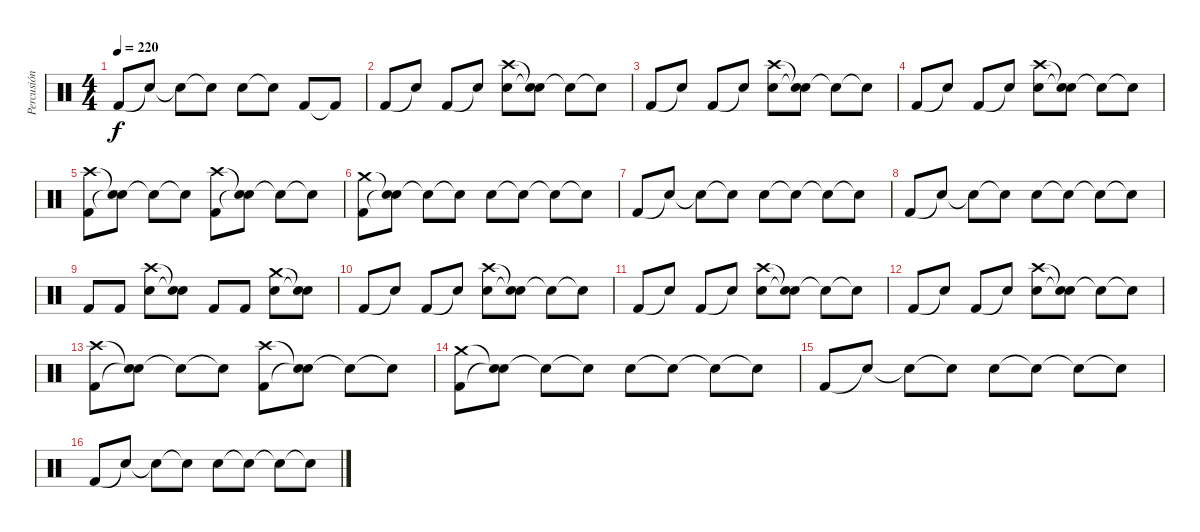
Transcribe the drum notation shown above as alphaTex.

\track ("Percusión" "Percusión") {instrument percussion}
\staff {score}
\articulation defaults
\ts (4 4)
\tempo 220
\clef neutral
\ks c "Kick (hit) 2".8{dy f} "Snare (hit)"{t}.8 "Snare (hit)"{t}.8 "Snare (hit)"{t}.8 "Snare (hit) 2".8 "Snare (hit)"{t}.8 "Kick (hit) 2".8 "Kick (hit) 2"{t}.8
|
"Kick (hit) 2".8 "Snare (hit)"{t}.8 "Kick (hit) 2".8 "Snare (hit)"{t}.8 ("Snare (hit) 2" "Crash high (hit)").8 ("Snare (hit)"{t} "Snare (hit)"{t}).8 "Snare (hit)"{t}.8 "Snare (hit)"{t}.8 |
"Kick (hit) 2".8 "Snare (hit)"{t}.8 "Kick (hit) 2".8 "Snare (hit)"{t}.8 ("Snare (hit) 2" "Crash high (hit)").8 ("Snare (hit)"{t} "Snare (hit)"{t}).8 "Snare (hit)"{t}.8 "Snare (hit)"{t}.8 |
"Kick (hit) 2".8 "Snare (hit)"{t}.8 "Kick (hit) 2".8 "Snare (hit)"{t}.8 ("Snare (hit) 2" "Crash high (hit)").8 ("Snare (hit)"{t} "Snare (hit)"{t}).8 "Snare (hit)"{t}.8 "Snare (hit)"{t}.8 |
("Kick (hit) 2" "Crash high (hit)").8 ("Snare (hit)"{t} "Snare (hit)"{t}).8 "Snare (hit)"{t}.8 "Snare (hit)"{t}.8 ("Kick (hit) 2" "Crash high (hit)").8 ("Snare (hit)"{t} "Snare (hit)"{t}).8 "Snare (hit)"{t}.8 "Snare (hit)"{t}.8 |
("Kick (hit) 2" "Crash medium (hit)").8 ("Snare (hit)"{t} "Snare (hit)"{t}).8 "Snare (hit)"{t}.8 "Snare (hit)"{t}.8 "Snare (hit) 2".8 "Snare (hit)"{t}.8 "Snare (hit)"{t}.8 "Snare (hit)"{t}.8 |
"Kick (hit) 2".8 "Snare (hit)"{t}.8 "Snare (hit)"{t}.8 "Snare (hit)"{t}.8 "Snare (hit) 2".8 "Snare (hit)"{t}.8 "Snare (hit)"{t}.8 "Snare (hit)"{t}.8 |
"Kick (hit) 2".8 "Snare (hit)"{t}.8 "Snare (hit)"{t}.8 "Snare (hit)"{t}.8 "Snare (hit) 2".8 "Snare (hit)"{t}.8 "Snare (hit)"{t}.8 "Snare (hit)"{t}.8 |
"Kick (hit) 2".8 "Kick (hit) 2".8 ("Snare (hit) 2" "Crash high (hit)").8 ("Snare (hit)"{t} "Snare (hit)"{t}).8 "Kick (hit) 2".8 "Kick (hit) 2".8 ("Snare (hit) 2" "Crash medium (hit)").8 ("Snare (hit)"{t} "Snare (hit)"{t}).8 |
"Kick (hit) 2".8 "Snare (hit)"{t}.8 "Kick (hit) 2".8 "Snare (hit)"{t}.8 ("Snare (hit) 2" "Crash high (hit)").8 ("Snare (hit)"{t} "Snare (hit)"{t}).8 "Snare (hit)"{t}.8 "Snare (hit)"{t}.8 |
"Kick (hit) 2".8 "Snare (hit)"{t}.8 "Kick (hit) 2".8 "Snare (hit)"{t}.8 ("Snare (hit) 2" "Crash high (hit)").8 ("Snare (hit)"{t} "Snare (hit)"{t}).8 "Snare (hit)"{t}.8 "Snare (hit)"{t}.8 |
"Kick (hit) 2".8 "Snare (hit)"{t}.8 "Kick (hit) 2".8 "Snare (hit)"{t}.8 ("Snare (hit) 2" "Crash high (hit)").8 ("Snare (hit)"{t} "Snare (hit)"{t}).8 "Snare (hit)"{t}.8 "Snare (hit)"{t}.8 |
("Kick (hit) 2" "Crash high (hit)").8 ("Snare (hit)"{t} "Snare (hit)"{t}).8 "Snare (hit)"{t}.8 "Snare (hit)"{t}.8 ("Kick (hit) 2" "Crash high (hit)").8 ("Snare (hit)"{t} "Snare (hit)"{t}).8 "Snare (hit)"{t}.8 "Snare (hit)"{t}.8 |
("Kick (hit) 2" "Crash medium (hit)").8 ("Snare (hit)"{t} "Snare (hit)"{t}).8 "Snare (hit)"{t}.8 "Snare (hit)"{t}.8 "Snare (hit) 2".8 "Snare (hit)"{t}.8 "Snare (hit)"{t}.8 "Snare (hit)"{t}.8 |
"Kick (hit) 2".8 "Snare (hit)"{t}.8 "Snare (hit)"{t}.8 "Snare (hit)"{t}.8 "Snare (hit) 2".8 "Snare (hit)"{t}.8 "Snare (hit)"{t}.8 "Snare (hit)"{t}.8 |
"Kick (hit) 2".8 "Snare (hit)"{t}.8 "Snare (hit)"{t}.8 "Snare (hit)"{t}.8 "Snare (hit) 2".8 "Snare (hit)"{t}.8 "Snare (hit)"{t}.8 "Snare (hit)"{t}.8
